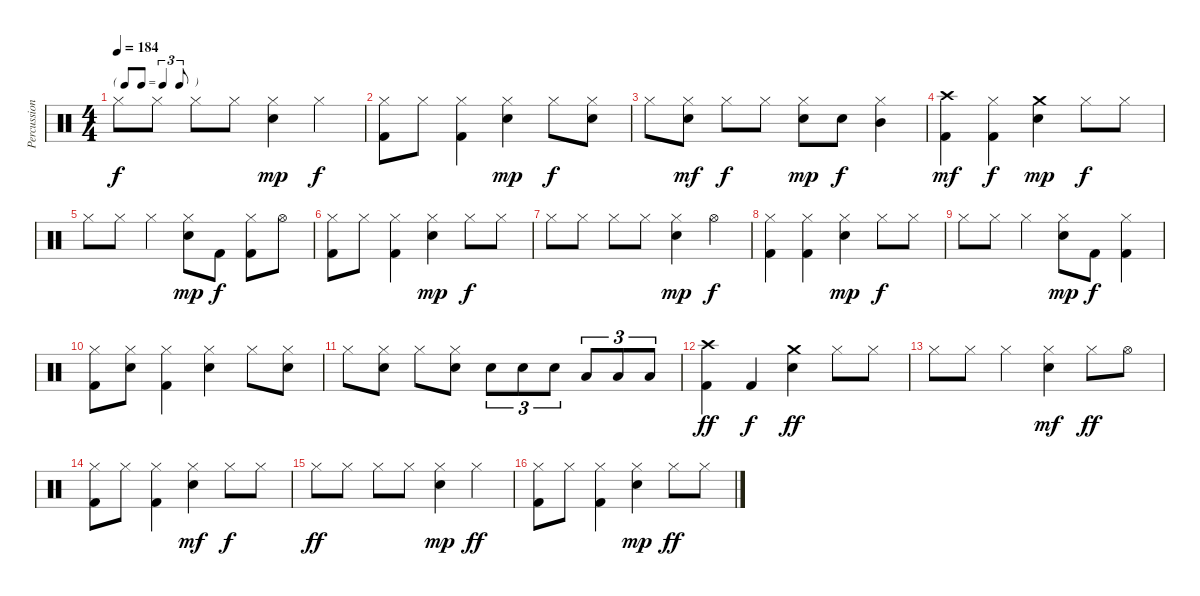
\track ("Percussion" "Percussion") {instrument percussion}
\staff {score}
\articulation defaults
\ts (4 4)
\tf triplet8th
\tempo 184
\clef neutral
\ks c "Hi-Hat (closed)".8{dy f} "Hi-Hat (closed)".8 "Hi-Hat (closed)".8 "Hi-Hat (closed)".8
("Hi-Hat (closed)" "Electric Snare (hit)").4{dy mp} "Hi-Hat (closed)".4{dy f} |
("Hi-Hat (closed)" "Kick (hit) 2").8 "Hi-Hat (closed)".8 ("Hi-Hat (closed)" "Kick (hit) 2").4 ("Hi-Hat (closed)" "Electric Snare (hit)").4{dy mp} "Hi-Hat (closed)".8{dy f} ("Hi-Hat (closed)" "Electric Snare (hit)").8 |
"Hi-Hat (closed)".8 ("Hi-Hat (closed)" "Electric Snare (hit)").8{dy mf} "Hi-Hat (closed)".8{dy f} "Hi-Hat (closed)".8 ("Hi-Hat (closed)" "Electric Snare (hit)").8{dy mp} "Electric Snare (hit)".8{dy f} ("Hi-Hat (closed)" "Mid Tom (hit)").4 |
("Crash high (hit)" "Kick (hit) 2").4{dy mf} ("Hi-Hat (closed)" "Kick (hit) 2").4{dy f} ("Crash medium (hit)" "Electric Snare (hit)").4{dy mp} "Hi-Hat (closed)".8{dy f} "Hi-Hat (closed)".8 |
"Hi-Hat (closed)".8 "Hi-Hat (closed)".8 "Hi-Hat (closed)".4 ("Hi-Hat (closed)" "Electric Snare (hit)").8{dy mp} "Kick (hit) 2".8{dy f} ("Hi-Hat (closed)" "Kick (hit) 2").8 "Hi-Hat (open)".8 |
("Hi-Hat (closed)" "Kick (hit) 2").8 "Hi-Hat (closed)".8 ("Hi-Hat (closed)" "Kick (hit) 2").4 ("Hi-Hat (closed)" "Electric Snare (hit)").4{dy mp} "Hi-Hat (closed)".8{dy f} "Hi-Hat (closed)".8 |
"Hi-Hat (closed)".8 "Hi-Hat (closed)".8 "Hi-Hat (closed)".8 "Hi-Hat (closed)".8 ("Hi-Hat (closed)" "Electric Snare (hit)").4{dy mp} "Hi-Hat (open)".4{dy f} |
("Hi-Hat (closed)" "Kick (hit) 2").4 ("Hi-Hat (closed)" "Kick (hit) 2").4 ("Hi-Hat (closed)" "Electric Snare (hit)").4{dy mp} "Hi-Hat (closed)".8{dy f} "Hi-Hat (closed)".8 |
"Hi-Hat (closed)".8 "Hi-Hat (closed)".8 "Hi-Hat (closed)".4 ("Hi-Hat (closed)" "Electric Snare (hit)").8{dy mp} "Kick (hit) 2".8{dy f} ("Hi-Hat (closed)" "Kick (hit) 2").4 |
("Hi-Hat (closed)" "Kick (hit) 2").8 ("Hi-Hat (closed)" "Electric Snare (hit)").8 ("Hi-Hat (closed)" "Kick (hit) 2").4 ("Hi-Hat (closed)" "Electric Snare (hit)").4 "Hi-Hat (closed)".8 ("Hi-Hat (closed)" "Electric Snare (hit)").8 |
"Hi-Hat (closed)".8 ("Hi-Hat (closed)" "Electric Snare (hit)").8 "Hi-Hat (closed)".8 ("Hi-Hat (closed)" "Electric Snare (hit)").8 "Electric Snare (hit)".8{tu (3 2)} "Electric Snare (hit)".8{tu (3 2)} "Electric Snare (hit)".8{tu (3 2)} "Low Tom (hit)".8{tu (3 2)} "Low Tom (hit)".8{tu (3 2)} "Low Tom (hit)".8{tu (3 2)} |
\section ("" "")
("Crash high (hit)" "Kick (hit) 2").4{dy ff} "Kick (hit) 2".4{dy f} ("Crash medium (hit)" "Electric Snare (hit)").4{dy ff} "Hi-Hat (closed)".8 "Hi-Hat (closed)".8 |
"Hi-Hat (closed)".8 "Hi-Hat (closed)".8 "Hi-Hat (closed)".4 ("Hi-Hat (closed)" "Electric Snare (hit)").4{dy mf} "Hi-Hat (closed)".8{dy ff} "Hi-Hat (open)".8 |
("Hi-Hat (closed)" "Kick (hit) 2").8 "Hi-Hat (closed)".8 ("Hi-Hat (closed)" "Kick (hit) 2").4 ("Hi-Hat (closed)" "Electric Snare (hit)").4{dy mf} "Hi-Hat (closed)".8{dy f} "Hi-Hat (closed)".8 |
"Hi-Hat (closed)".8{dy ff} "Hi-Hat (closed)".8 "Hi-Hat (closed)".8 "Hi-Hat (closed)".8 ("Hi-Hat (closed)" "Electric Snare (hit)").4{dy mp} "Hi-Hat (closed)".4{dy ff} |
("Hi-Hat (closed)" "Kick (hit) 2").8 "Hi-Hat (closed)".8 ("Hi-Hat (closed)" "Kick (hit) 2").4 ("Hi-Hat (closed)" "Electric Snare (hit)").4{dy mp} "Hi-Hat (closed)".8{dy ff} "Hi-Hat (closed)".8
